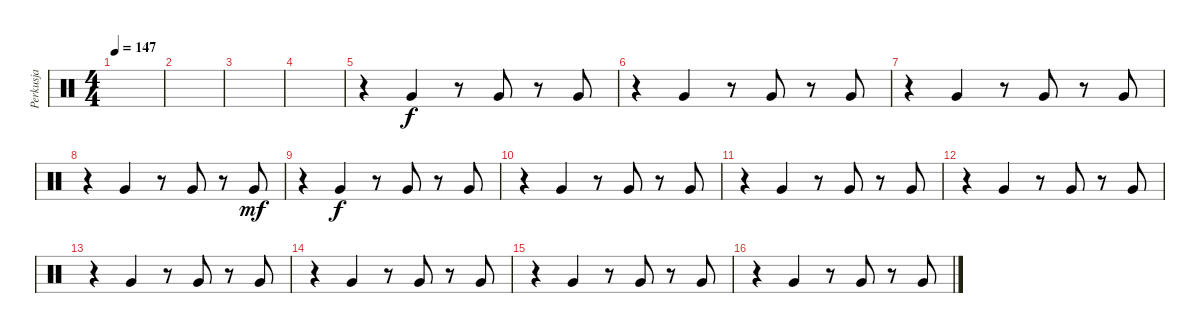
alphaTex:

\track ("Perkusja" "Perkusja") {instrument percussion}
\staff {score}
\articulation defaults
\ts (4 4)
\tempo 147
\clef neutral
\ks c
|
|
|
|
r.4 "Very Low Tom (hit)".4 r.8 "Very Low Tom (hit)".8 r.8 "Very Low Tom (hit)".8 |
r.4 "Very Low Tom (hit)".4 r.8 "Very Low Tom (hit)".8 r.8 "Very Low Tom (hit)".8 |
r.4 "Very Low Tom (hit)".4 r.8 "Very Low Tom (hit)".8 r.8 "Very Low Tom (hit)".8 |
r.4 "Very Low Tom (hit)".4 r.8 "Very Low Tom (hit)".8 r.8 "Very Low Tom (hit)".8{dy mf} |
r.4 "Very Low Tom (hit)".4{dy f} r.8 "Very Low Tom (hit)".8 r.8 "Very Low Tom (hit)".8 |
r.4 "Very Low Tom (hit)".4 r.8 "Very Low Tom (hit)".8 r.8 "Very Low Tom (hit)".8 |
r.4 "Very Low Tom (hit)".4 r.8 "Very Low Tom (hit)".8 r.8 "Very Low Tom (hit)".8 |
r.4 "Very Low Tom (hit)".4 r.8 "Very Low Tom (hit)".8 r.8 "Very Low Tom (hit)".8 |
r.4 "Very Low Tom (hit)".4 r.8 "Very Low Tom (hit)".8 r.8 "Very Low Tom (hit)".8 |
r.4 "Very Low Tom (hit)".4 r.8 "Very Low Tom (hit)".8 r.8 "Very Low Tom (hit)".8 |
r.4 "Very Low Tom (hit)".4 r.8 "Very Low Tom (hit)".8 r.8 "Very Low Tom (hit)".8 |
r.4 "Very Low Tom (hit)".4 r.8 "Very Low Tom (hit)".8 r.8 "Very Low Tom (hit)".8
